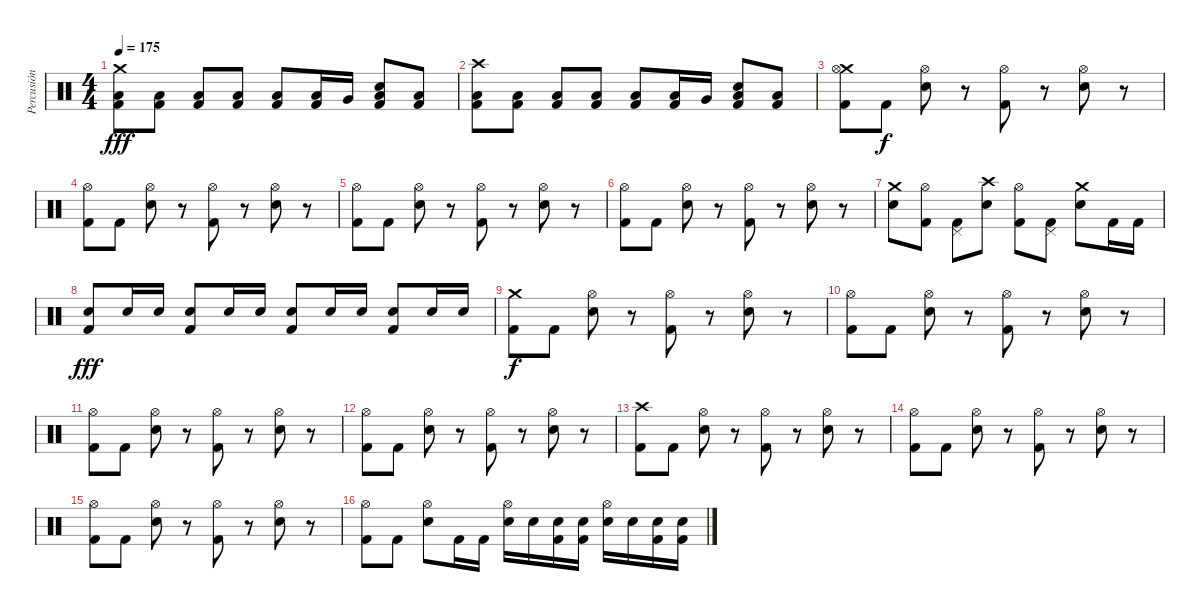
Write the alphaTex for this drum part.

\track ("Percusión" "Percusión") {instrument percussion}
\staff {score}
\articulation defaults
\ts (4 4)
\tempo 175
\clef neutral
\ks c
("Crash medium (hit)" "Low Tom (hit)" "Kick (hit) 2").8{dy fff} ("Low Tom (hit)" "Kick (hit) 2").8 ("Low Tom (hit)" "Kick (hit) 2").8 ("Low Tom (hit)" "Kick (hit) 2").8 ("Low Tom (hit)" "Kick (hit) 2").8 ("Low Tom (hit)" "Kick (hit) 2").16 "Very Low Tom (hit)".16 ("Low Tom (hit)" "Electric Snare (hit)" "Kick (hit) 2").8 ("Low Tom (hit)" "Kick (hit) 2").8 |
("Crash high (hit)" "Low Tom (hit)" "Kick (hit) 2").8 ("Low Tom (hit)" "Kick (hit) 2").8 ("Low Tom (hit)" "Kick (hit) 2").8 ("Low Tom (hit)" "Kick (hit) 2").8 ("Low Tom (hit)" "Kick (hit) 2").8 ("Low Tom (hit)" "Kick (hit) 2").16 "Very Low Tom (hit)".16 ("Low Tom (hit)" "Electric Snare (hit)" "Kick (hit) 2").8 ("Low Tom (hit)" "Kick (hit) 2").8 |
("Crash medium (hit)" "Hi-Hat (open)" "Kick (hit) 2").8 "Kick (hit) 2".8{dy f} ("Hi-Hat (open)" "Electric Snare (hit)").8 r.8 ("Hi-Hat (open)" "Kick (hit) 2").8 r.8 ("Hi-Hat (open)" "Electric Snare (hit)").8 r.8 |
("Hi-Hat (open)" "Kick (hit) 2").8 "Kick (hit) 2".8 ("Hi-Hat (open)" "Electric Snare (hit)").8 r.8 ("Hi-Hat (open)" "Kick (hit) 2").8 r.8 ("Hi-Hat (open)" "Electric Snare (hit)").8 r.8 |
("Hi-Hat (open)" "Kick (hit) 2").8 "Kick (hit) 2".8 ("Hi-Hat (open)" "Electric Snare (hit)").8 r.8 ("Hi-Hat (open)" "Kick (hit) 2").8 r.8 ("Hi-Hat (open)" "Electric Snare (hit)").8 r.8 |
("Hi-Hat (open)" "Kick (hit) 2").8 "Kick (hit) 2".8 ("Hi-Hat (open)" "Electric Snare (hit)").8 r.8 ("Hi-Hat (open)" "Kick (hit) 2").8 r.8 ("Hi-Hat (open)" "Electric Snare (hit)").8 r.8 |
("Crash medium (hit)" "Electric Snare (hit)").8 ("Hi-Hat (open)" "Kick (hit) 2").8 ("Pedal Hi-Hat (hit)" "Kick (hit) 2").8 ("Crash high (hit)" "Electric Snare (hit)").8 ("Hi-Hat (open)" "Kick (hit) 2").8 ("Pedal Hi-Hat (hit)" "Kick (hit) 2").8 ("Crash medium (hit)" "Electric Snare (hit)").8 "Kick (hit) 2".16 "Kick (hit) 2".16 |
("Electric Snare (hit)" "Kick (hit) 2").8{dy fff} "Electric Snare (hit)".16 "Electric Snare (hit)".16 ("Electric Snare (hit)" "Kick (hit) 2").8 "Electric Snare (hit)".16 "Electric Snare (hit)".16 ("Electric Snare (hit)" "Kick (hit) 2").8 "Electric Snare (hit)".16 "Electric Snare (hit)".16 ("Electric Snare (hit)" "Kick (hit) 2").8 "Electric Snare (hit)".16 "Electric Snare (hit)".16 |
("Crash medium (hit)" "Kick (hit) 2").8{dy f} "Kick (hit) 2".8 ("Hi-Hat (open)" "Electric Snare (hit)").8 r.8 ("Hi-Hat (open)" "Kick (hit) 2").8 r.8 ("Hi-Hat (open)" "Electric Snare (hit)").8 r.8 |
("Hi-Hat (open)" "Kick (hit) 2").8 "Kick (hit) 2".8 ("Hi-Hat (open)" "Electric Snare (hit)").8 r.8 ("Hi-Hat (open)" "Kick (hit) 2").8 r.8 ("Hi-Hat (open)" "Electric Snare (hit)").8 r.8 |
("Hi-Hat (open)" "Kick (hit) 2").8 "Kick (hit) 2".8 ("Hi-Hat (open)" "Electric Snare (hit)").8 r.8 ("Hi-Hat (open)" "Kick (hit) 2").8 r.8 ("Hi-Hat (open)" "Electric Snare (hit)").8 r.8 |
("Hi-Hat (open)" "Kick (hit) 2").8 "Kick (hit) 2".8 ("Hi-Hat (open)" "Electric Snare (hit)").8 r.8 ("Hi-Hat (open)" "Kick (hit) 2").8 r.8 ("Hi-Hat (open)" "Electric Snare (hit)").8 r.8 |
("Crash high (hit)" "Kick (hit) 2").8 "Kick (hit) 2".8 ("Hi-Hat (open)" "Electric Snare (hit)").8 r.8 ("Hi-Hat (open)" "Kick (hit) 2").8 r.8 ("Hi-Hat (open)" "Electric Snare (hit)").8 r.8 |
("Hi-Hat (open)" "Kick (hit) 2").8 "Kick (hit) 2".8 ("Hi-Hat (open)" "Electric Snare (hit)").8 r.8 ("Hi-Hat (open)" "Kick (hit) 2").8 r.8 ("Hi-Hat (open)" "Electric Snare (hit)").8 r.8 |
("Hi-Hat (open)" "Kick (hit) 2").8 "Kick (hit) 2".8 ("Hi-Hat (open)" "Electric Snare (hit)").8 r.8 ("Hi-Hat (open)" "Kick (hit) 2").8 r.8 ("Hi-Hat (open)" "Electric Snare (hit)").8 r.8 |
("Hi-Hat (open)" "Kick (hit) 2").8 "Kick (hit) 2".8 ("Hi-Hat (open)" "Electric Snare (hit)").8 "Kick (hit) 2".16 "Kick (hit) 2".16 ("Hi-Hat (open)" "Electric Snare (hit)").16 "Electric Snare (hit)".16 ("Electric Snare (hit)" "Kick (hit) 2").16 ("Electric Snare (hit)" "Kick (hit) 2").16 ("Hi-Hat (open)" "Electric Snare (hit)").16 "Electric Snare (hit)".16 ("Electric Snare (hit)" "Kick (hit) 2").16 ("Electric Snare (hit)" "Kick (hit) 2").16
